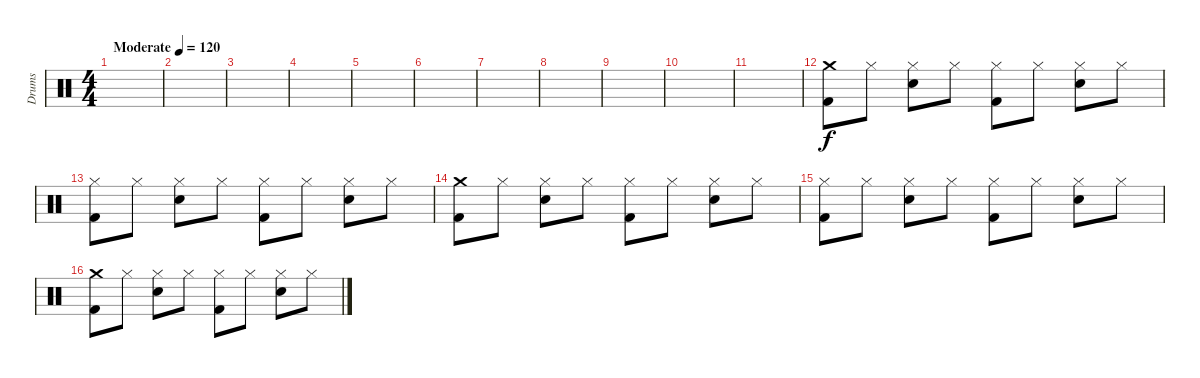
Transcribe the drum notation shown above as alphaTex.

\track ("Drums" "Drums") {instrument percussion}
\staff {score}
\articulation defaults
\ts (4 4)
\tempo (120 "Moderate")
\clef neutral
\ks c
|
|
|
|
|
|
|
|
|
|
|
("Crash medium (hit)" "Kick (hit) 2").8 "Hi-Hat (closed)".8 ("Hi-Hat (closed)" "Snare (hit) 2").8 "Hi-Hat (closed)".8 ("Hi-Hat (closed)" "Kick (hit) 2").8 "Hi-Hat (closed)".8 ("Hi-Hat (closed)" "Snare (hit) 2").8 "Hi-Hat (closed)".8 |
("Hi-Hat (closed)" "Kick (hit) 2").8 "Hi-Hat (closed)".8 ("Hi-Hat (closed)" "Snare (hit) 2").8 "Hi-Hat (closed)".8 ("Hi-Hat (closed)" "Kick (hit) 2").8 "Hi-Hat (closed)".8 ("Hi-Hat (closed)" "Snare (hit) 2").8 "Hi-Hat (closed)".8 |
("Crash medium (hit)" "Kick (hit) 2").8 "Hi-Hat (closed)".8 ("Hi-Hat (closed)" "Snare (hit) 2").8 "Hi-Hat (closed)".8 ("Hi-Hat (closed)" "Kick (hit) 2").8 "Hi-Hat (closed)".8 ("Hi-Hat (closed)" "Snare (hit) 2").8 "Hi-Hat (closed)".8 |
("Hi-Hat (closed)" "Kick (hit) 2").8 "Hi-Hat (closed)".8 ("Hi-Hat (closed)" "Snare (hit) 2").8 "Hi-Hat (closed)".8 ("Hi-Hat (closed)" "Kick (hit) 2").8 "Hi-Hat (closed)".8 ("Hi-Hat (closed)" "Snare (hit) 2").8 "Hi-Hat (closed)".8 |
("Crash medium (hit)" "Kick (hit) 2").8 "Hi-Hat (closed)".8 ("Hi-Hat (closed)" "Snare (hit) 2").8 "Hi-Hat (closed)".8 ("Hi-Hat (closed)" "Kick (hit) 2").8 "Hi-Hat (closed)".8 ("Hi-Hat (closed)" "Snare (hit) 2").8 "Hi-Hat (closed)".8
